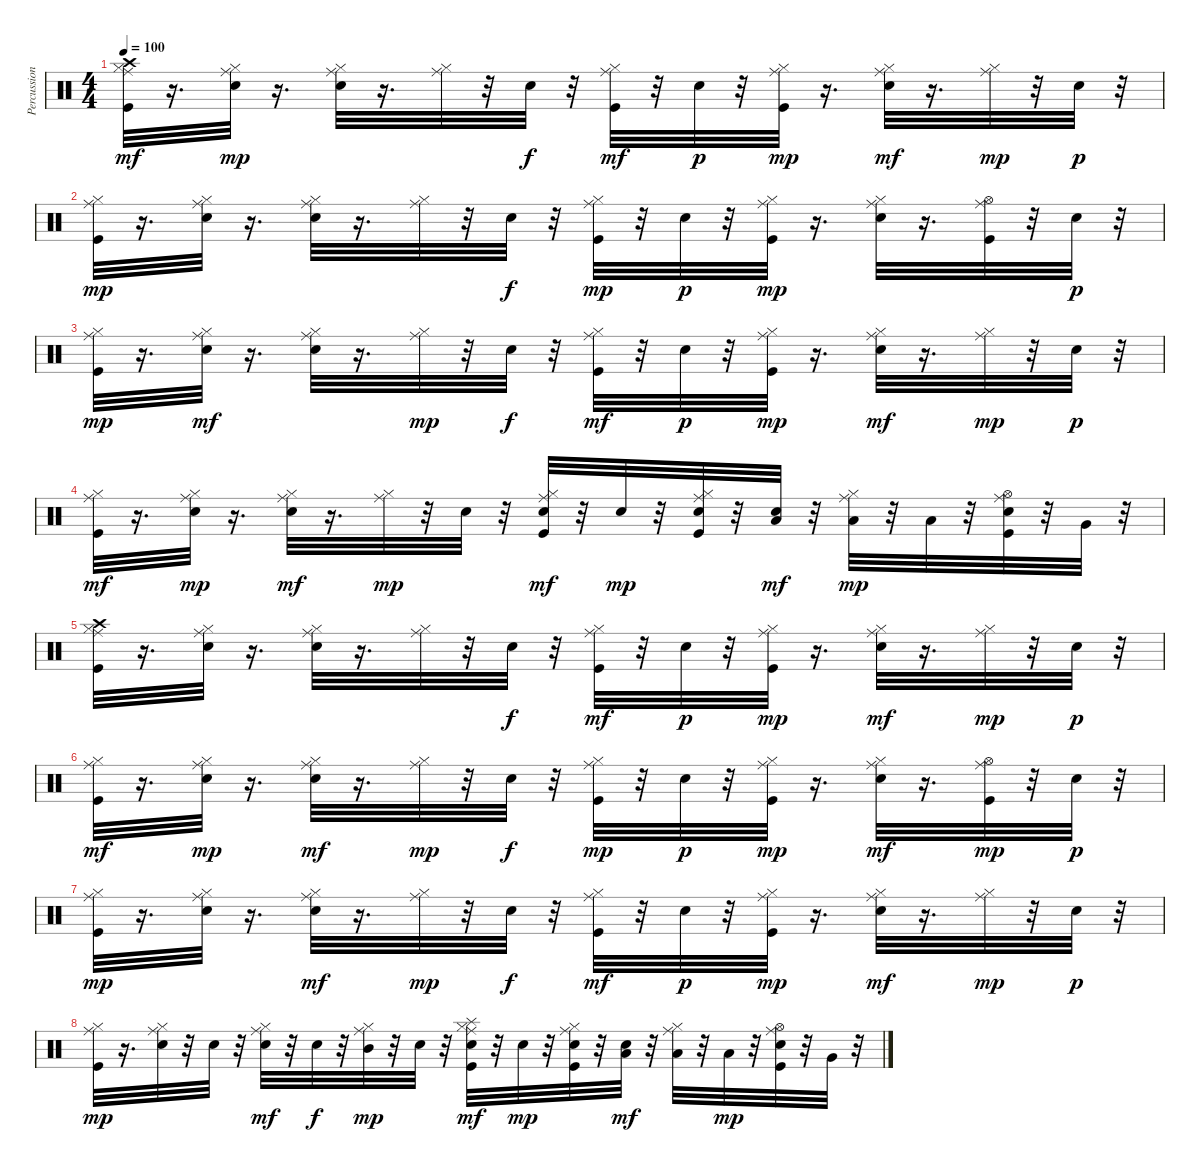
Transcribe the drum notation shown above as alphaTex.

\track ("Percussions" "Percussion") {instrument percussion}
\staff {score}
\articulation defaults
\ts (4 4)
\tempo 100
\clef neutral
\ks c
("Kick (hit)" "Hi-Hat (closed)" "Crash high (hit)" "Ride (middle)").32{dy mf} r.16{d} ("Electric Snare (hit)" "Hi-Hat (closed)" "Ride (middle)").32{dy mp} r.16{d} ("Electric Snare (hit)" "Hi-Hat (closed)" "Ride (middle)").32 r.16{d} ("Hi-Hat (closed)" "Ride (middle)").32 r.32 "Electric Snare (hit)".32{dy f} r.32 ("Kick (hit)" "Hi-Hat (closed)" "Ride (middle)").32{dy mf} r.32 "Electric Snare (hit)".32{dy p} r.32 ("Kick (hit)" "Hi-Hat (closed)" "Ride (middle)").32{dy mp} r.16{d} ("Electric Snare (hit)" "Hi-Hat (closed)" "Ride (middle)").32{dy mf} r.16{d} ("Hi-Hat (closed)" "Ride (middle)").32{dy mp} r.32 "Electric Snare (hit)".32{dy p} r.32 |
("Kick (hit)" "Hi-Hat (closed)" "Ride (middle)").32{dy mp} r.16{d} ("Electric Snare (hit)" "Hi-Hat (closed)" "Ride (middle)").32 r.16{d} ("Electric Snare (hit)" "Hi-Hat (closed)" "Ride (middle)").32 r.16{d} ("Hi-Hat (closed)" "Ride (middle)").32 r.32 "Electric Snare (hit)".32{dy f} r.32 ("Kick (hit)" "Hi-Hat (closed)" "Ride (middle)").32{dy mp} r.32 "Electric Snare (hit)".32{dy p} r.32 ("Kick (hit)" "Hi-Hat (closed)" "Ride (middle)").32{dy mp} r.16{d} ("Electric Snare (hit)" "Hi-Hat (closed)" "Ride (middle)").32 r.16{d} ("Kick (hit)" "Hi-Hat (open)" "Ride (middle)").32 r.32 "Electric Snare (hit)".32{dy p} r.32 |
("Kick (hit)" "Hi-Hat (closed)" "Ride (middle)").32{dy mp} r.16{d} ("Electric Snare (hit)" "Hi-Hat (closed)" "Ride (middle)").32{dy mf} r.16{d} ("Electric Snare (hit)" "Hi-Hat (closed)" "Ride (middle)").32 r.16{d} ("Hi-Hat (closed)" "Ride (middle)").32{dy mp} r.32 "Electric Snare (hit)".32{dy f} r.32 ("Kick (hit)" "Hi-Hat (closed)" "Ride (middle)").32{dy mf} r.32 "Electric Snare (hit)".32{dy p} r.32 ("Kick (hit)" "Hi-Hat (closed)" "Ride (middle)").32{dy mp} r.16{d} ("Electric Snare (hit)" "Hi-Hat (closed)" "Ride (middle)").32{dy mf} r.16{d} ("Hi-Hat (closed)" "Ride (middle)").32{dy mp} r.32 "Electric Snare (hit)".32{dy p} r.32 |
("Kick (hit)" "Hi-Hat (closed)" "Ride (middle)").32{dy mf} r.16{d} ("Electric Snare (hit)" "Hi-Hat (closed)" "Ride (middle)").32{dy mp} r.16{d} ("Electric Snare (hit)" "Hi-Hat (closed)" "Ride (middle)").32{dy mf} r.16{d} ("Hi-Hat (closed)" "Ride (middle)").32{dy mp} r.32 "Electric Snare (hit)".32 r.32 ("Kick (hit)" "Electric Snare (hit)" "Hi-Hat (closed)" "Ride (middle)").32{dy mf} r.32 "Electric Snare (hit)".32{dy mp} r.32 ("Kick (hit)" "Electric Snare (hit)" "Hi-Hat (closed)" "Ride (middle)").32 r.32 ("Electric Snare (hit)" "Low Tom (hit)").32{dy mf} r.32 ("Hi-Hat (closed)" "Low Tom (hit)" "Ride (middle)").32{dy mp} r.32 "Low Tom (hit)".32 r.32 ("Kick (hit)" "Electric Snare (hit)" "Hi-Hat (open)" "Ride (middle)").32 r.32 "Very Low Tom (hit)".32 r.32 |
("Kick (hit)" "Hi-Hat (closed)" "Crash high (hit)" "Ride (middle)").32 r.16{d} ("Electric Snare (hit)" "Hi-Hat (closed)" "Ride (middle)").32 r.16{d} ("Electric Snare (hit)" "Hi-Hat (closed)" "Ride (middle)").32 r.16{d} ("Hi-Hat (closed)" "Ride (middle)").32 r.32 "Electric Snare (hit)".32{dy f} r.32 ("Kick (hit)" "Hi-Hat (closed)" "Ride (middle)").32{dy mf} r.32 "Electric Snare (hit)".32{dy p} r.32 ("Kick (hit)" "Hi-Hat (closed)" "Ride (middle)").32{dy mp} r.16{d} ("Electric Snare (hit)" "Hi-Hat (closed)" "Ride (middle)").32{dy mf} r.16{d} ("Hi-Hat (closed)" "Ride (middle)").32{dy mp} r.32 "Electric Snare (hit)".32{dy p} r.32 |
("Kick (hit)" "Hi-Hat (closed)" "Ride (middle)").32{dy mf} r.16{d} ("Electric Snare (hit)" "Hi-Hat (closed)" "Ride (middle)").32{dy mp} r.16{d} ("Electric Snare (hit)" "Hi-Hat (closed)" "Ride (middle)").32{dy mf} r.16{d} ("Hi-Hat (closed)" "Ride (middle)").32{dy mp} r.32 "Electric Snare (hit)".32{dy f} r.32 ("Kick (hit)" "Hi-Hat (closed)" "Ride (middle)").32{dy mp} r.32 "Electric Snare (hit)".32{dy p} r.32 ("Kick (hit)" "Hi-Hat (closed)" "Ride (middle)").32{dy mp} r.16{d} ("Electric Snare (hit)" "Hi-Hat (closed)" "Ride (middle)").32{dy mf} r.16{d} ("Kick (hit)" "Hi-Hat (open)" "Ride (middle)").32{dy mp} r.32 "Electric Snare (hit)".32{dy p} r.32 |
("Kick (hit)" "Hi-Hat (closed)" "Ride (middle)").32{dy mp} r.16{d} ("Electric Snare (hit)" "Hi-Hat (closed)" "Ride (middle)").32 r.16{d} ("Electric Snare (hit)" "Hi-Hat (closed)" "Ride (middle)").32{dy mf} r.16{d} ("Hi-Hat (closed)" "Ride (middle)").32{dy mp} r.32 "Electric Snare (hit)".32{dy f} r.32 ("Kick (hit)" "Hi-Hat (closed)" "Ride (middle)").32{dy mf} r.32 "Electric Snare (hit)".32{dy p} r.32 ("Kick (hit)" "Hi-Hat (closed)" "Ride (middle)").32{dy mp} r.16{d} ("Electric Snare (hit)" "Hi-Hat (closed)" "Ride (middle)").32{dy mf} r.16{d} ("Hi-Hat (closed)" "Ride (middle)").32{dy mp} r.32 "Electric Snare (hit)".32{dy p} r.32 |
("Kick (hit)" "Hi-Hat (closed)" "Ride (middle)").32{dy mp} r.16{d} ("Electric Snare (hit)" "Hi-Hat (closed)" "Ride (middle)").32 r.32 "Electric Snare (hit)".32 r.32 ("Electric Snare (hit)" "Hi-Hat (closed)" "Ride (middle)").32{dy mf} r.32 "Electric Snare (hit)".32{dy f} r.32 ("Hi-Hat (closed)" "Mid Tom (hit)" "Ride (middle)").32{dy mp} r.32 "Electric Snare (hit)".32 r.32 ("Kick (hit)" "Electric Snare (hit)" "Hi-Hat (closed)" "Ride (middle)" "Splash (hit)").32{dy mf} r.32 "Electric Snare (hit)".32{dy mp} r.32 ("Kick (hit)" "Electric Snare (hit)" "Hi-Hat (closed)" "Ride (middle)").32 r.32 ("Electric Snare (hit)" "Low Tom (hit)").32{dy mf} r.32 ("Hi-Hat (closed)" "Low Tom (hit)" "Ride (middle)").32 r.32 "Low Tom (hit)".32{dy mp} r.32 ("Kick (hit)" "Electric Snare (hit)" "Hi-Hat (open)" "Ride (middle)").32 r.32 "Very Low Tom (hit)".32 r.32
